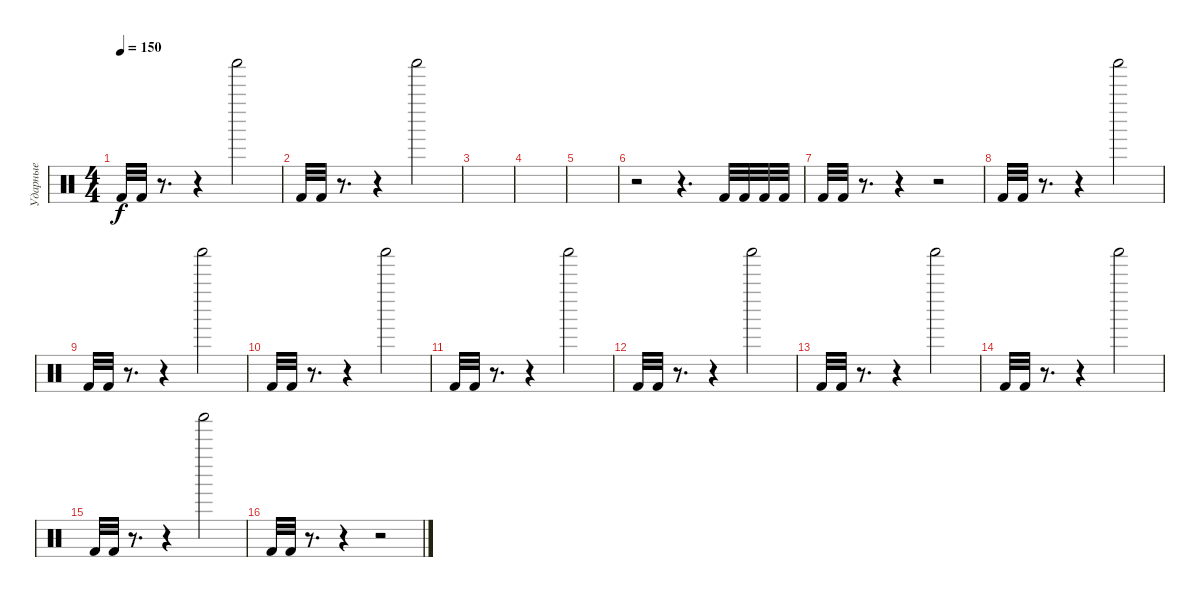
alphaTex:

\track ("Ударные" "Ударные") {instrument percussion}
\staff {score}
\articulation defaults
\ts (4 4)
\tempo 150
\clef neutral
\ks c "Kick (hit) 2".32{dy f} "Kick (hit) 2".32
r.8{d} r.4 "Shaker (hit)".2 |
"Kick (hit) 2".32 "Kick (hit) 2".32 r.8{d} r.4 "Shaker (hit)".2 |
|
|
|
r.2 r.4{d} "Kick (hit) 2".32 "Kick (hit) 2".32 "Kick (hit) 2".32 "Kick (hit) 2".32 |
"Kick (hit) 2".32 "Kick (hit) 2".32 r.8{d} r.4 r.2 |
"Kick (hit) 2".32 "Kick (hit) 2".32 r.8{d} r.4 "Shaker (hit)".2 |
"Kick (hit) 2".32 "Kick (hit) 2".32 r.8{d} r.4 "Shaker (hit)".2 |
"Kick (hit) 2".32 "Kick (hit) 2".32 r.8{d} r.4 "Shaker (hit)".2 |
"Kick (hit) 2".32 "Kick (hit) 2".32 r.8{d} r.4 "Shaker (hit)".2 |
"Kick (hit) 2".32 "Kick (hit) 2".32 r.8{d} r.4 "Shaker (hit)".2 |
"Kick (hit) 2".32 "Kick (hit) 2".32 r.8{d} r.4 "Shaker (hit)".2 |
"Kick (hit) 2".32 "Kick (hit) 2".32 r.8{d} r.4 "Shaker (hit)".2 |
"Kick (hit) 2".32 "Kick (hit) 2".32 r.8{d} r.4 "Shaker (hit)".2 |
"Kick (hit) 2".32 "Kick (hit) 2".32 r.8{d} r.4 r.2
